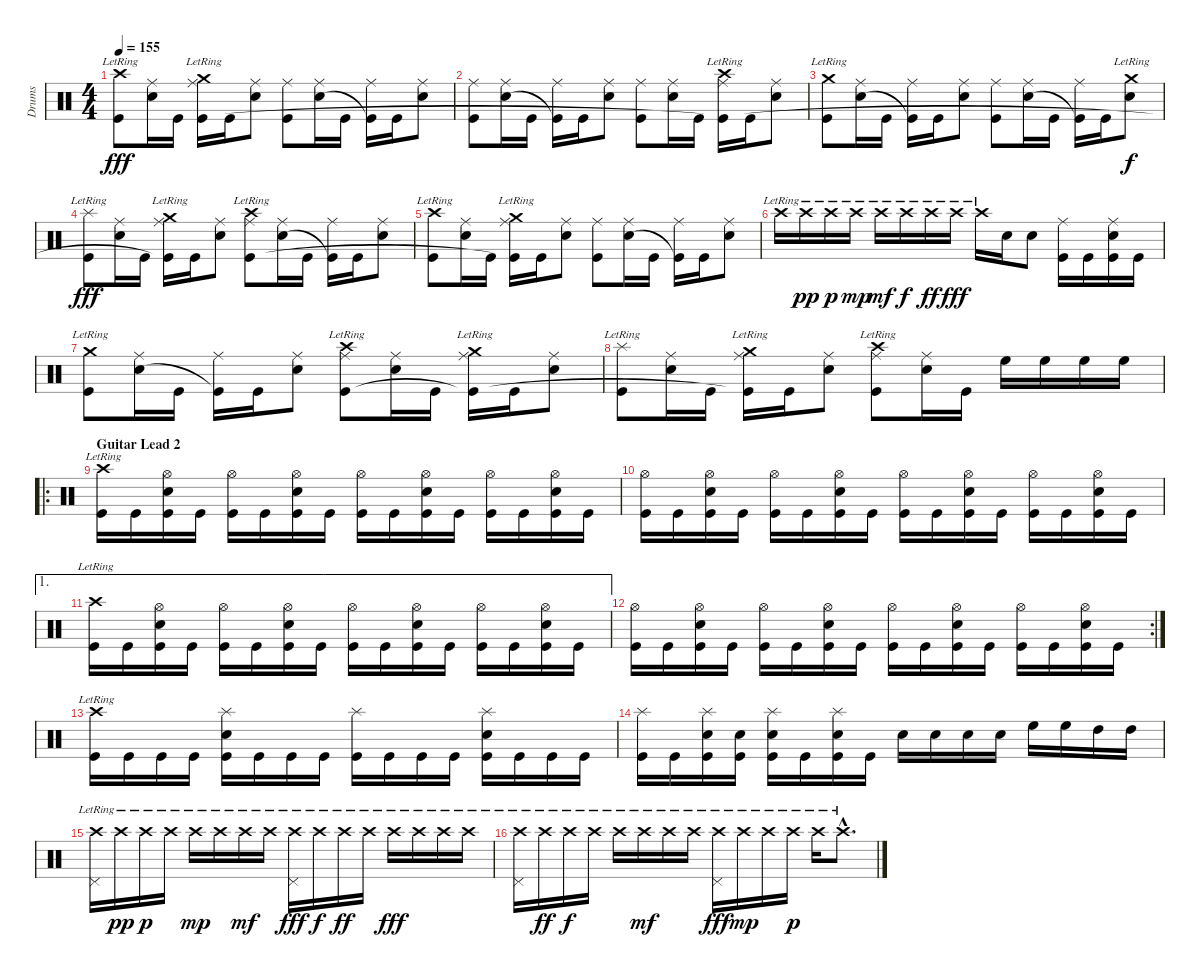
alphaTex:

\track ("Drums" "Drums") {instrument percussion}
\staff {score}
\articulation defaults
\ts (4 4)
\tempo 155
\clef neutral
\ks c
("Crash high (hit)"{lr} "Kick (hit)").8{dy fff} ("Ride (middle)" "Snare (hit) 2").16 "Kick (hit)".16 ("Crash medium (hit)"{lr} "Ride (middle)" "Kick (hit)"{t}).16 "Kick (hit)".16 ("Ride (middle)" "Snare (hit) 2").8 ("Ride (middle)" "Kick (hit)").8 ("Ride (middle)" "Snare (hit) 2").16 "Kick (hit)".16 ("Ride (middle)" "Kick (hit)"{t}).16 "Kick (hit)".16 ("Ride (middle)" "Snare (hit) 2").8 |
("Ride (middle)" "Kick (hit)").8 ("Ride (middle)" "Snare (hit) 2").16 "Kick (hit)".16 ("Ride (middle)" "Kick (hit)"{t}).16 "Kick (hit)".16 ("Ride (middle)" "Snare (hit) 2").8 ("Ride (middle)" "Kick (hit)").8 ("Ride (middle)" "Snare (hit) 2").16 "Kick (hit)".16 ("Crash high (hit)"{lr} "Ride (middle)" "Kick (hit)"{t}).16 "Kick (hit)".16 ("Ride (middle)" "Snare (hit) 2").8 |
("Crash medium (hit)"{lr} "Kick (hit)").8 ("Ride (middle)" "Snare (hit) 2").16 "Kick (hit)".16 ("Ride (middle)" "Kick (hit)"{t}).16 "Kick (hit)".16 ("Ride (middle)" "Snare (hit) 2").8 ("Ride (middle)" "Kick (hit)").8 ("Ride (middle)" "Snare (hit) 2").16 "Kick (hit)".16 ("Ride (middle)" "Kick (hit)"{t}).16 "Kick (hit)".16 ("Crash medium (hit)"{lr} "Snare (hit) 2").8{dy f} |
("Splash (hit)"{lr} "Kick (hit)").8{dy fff} ("Ride (middle)" "Snare (hit) 2").16 "Kick (hit)".16 ("Crash medium (hit)"{lr} "Ride (middle)" "Kick (hit)"{t}).16 "Kick (hit)".16 ("Ride (middle)" "Snare (hit) 2").8 ("Crash high (hit)"{lr} "Ride (middle)" "Kick (hit)").8 ("Ride (middle)" "Snare (hit) 2").16 "Kick (hit)".16 ("Ride (middle)" "Kick (hit)"{t}).16 "Kick (hit)".16 ("Ride (middle)" "Snare (hit) 2").8 |
("Crash high (hit)"{lr} "Kick (hit)").8 ("Ride (middle)" "Snare (hit) 2").16 "Kick (hit)".16 ("Crash medium (hit)"{lr} "Ride (middle)" "Kick (hit)"{t}).16 "Kick (hit)".16 ("Ride (middle)" "Snare (hit) 2").8 ("Ride (middle)" "Kick (hit)").8 ("Ride (middle)" "Snare (hit) 2").16 "Kick (hit)".16 ("Ride (middle)" "Kick (hit)"{t}).16 "Kick (hit)".16 ("Ride (middle)" "Snare (hit) 2").8 |
"Crash high (hit)"{lr}.16 "Crash high (hit)"{lr}.16{dy pp} "Crash high (hit)"{lr}.16{dy p} "Crash high (hit)"{lr}.16{dy mp} "Crash high (hit)"{lr}.16{dy mf} "Crash high (hit)"{lr}.16{dy f} "Crash high (hit)"{lr}.16{dy ff} "Crash high (hit)"{lr}.16{dy fff} "Crash high (hit)"{lr}.16 "Snare (hit) 2".16 "Snare (hit) 2".8 ("Ride (middle)" "Kick (hit)").16 "Kick (hit)".16 ("Ride (middle)" "Snare (hit) 2" "Kick (hit)").16 "Kick (hit)".16 |
("Crash medium (hit)"{lr} "Kick (hit)").8 ("Ride (middle)" "Snare (hit) 2").16 "Kick (hit)".16 ("Ride (middle)" "Kick (hit)"{t}).16 "Kick (hit)".16 ("Ride (middle)" "Snare (hit) 2").8 ("Crash high (hit)"{lr} "Ride (middle)" "Kick (hit)").8 ("Ride (middle)" "Snare (hit) 2").16 "Kick (hit)".16 ("Crash medium (hit)"{lr} "Ride (middle)" "Kick (hit)"{t}).16 "Kick (hit)".16 ("Ride (middle)" "Snare (hit) 2").8 |
("Splash (hit)"{lr} "Kick (hit)").8 ("Ride (middle)" "Snare (hit) 2").16 "Kick (hit)".16 ("Crash medium (hit)"{lr} "Ride (middle)" "Kick (hit)"{t}).16 "Kick (hit)".16 ("Ride (middle)" "Snare (hit) 2").8 ("Crash high (hit)"{lr} "Ride (middle)" "Kick (hit)").8 ("Ride (middle)" "Snare (hit) 2").16 "Kick (hit)".16 "High Floor Tom (hit)".16{balance 13} "High Floor Tom (hit)".16 "High Floor Tom (hit)".16 "High Floor Tom (hit)".16 |
\ro
\section ("" "Guitar Lead 2")
("Crash high (hit)"{lr} "Kick (hit)").16{balance 8} "Kick (hit)".16 ("Hi-Hat (open)" "Snare (hit) 2" "Kick (hit)").16 "Kick (hit)".16 ("Hi-Hat (open)" "Kick (hit)").16 "Kick (hit)".16 ("Hi-Hat (open)" "Snare (hit) 2" "Kick (hit)").16 "Kick (hit)".16 ("Hi-Hat (open)" "Kick (hit)").16 "Kick (hit)".16 ("Hi-Hat (open)" "Snare (hit) 2" "Kick (hit)").16 "Kick (hit)".16 ("Hi-Hat (open)" "Kick (hit)").16 "Kick (hit)".16 ("Hi-Hat (open)" "Snare (hit) 2" "Kick (hit)").16 "Kick (hit)".16 |
("Hi-Hat (open)" "Kick (hit)").16 "Kick (hit)".16 ("Hi-Hat (open)" "Snare (hit) 2" "Kick (hit)").16 "Kick (hit)".16 ("Hi-Hat (open)" "Kick (hit)").16 "Kick (hit)".16 ("Hi-Hat (open)" "Snare (hit) 2" "Kick (hit)").16 "Kick (hit)".16 ("Hi-Hat (open)" "Kick (hit)").16 "Kick (hit)".16 ("Hi-Hat (open)" "Snare (hit) 2" "Kick (hit)").16 "Kick (hit)".16 ("Hi-Hat (open)" "Kick (hit)").16 "Kick (hit)".16 ("Hi-Hat (open)" "Snare (hit) 2" "Kick (hit)").16 "Kick (hit)".16 |
\ae 1
("Crash high (hit)"{lr} "Kick (hit)").16 "Kick (hit)".16 ("Hi-Hat (open)" "Snare (hit) 2" "Kick (hit)").16 "Kick (hit)".16 ("Hi-Hat (open)" "Kick (hit)").16 "Kick (hit)".16 ("Hi-Hat (open)" "Snare (hit) 2" "Kick (hit)").16 "Kick (hit)".16 ("Hi-Hat (open)" "Kick (hit)").16 "Kick (hit)".16 ("Hi-Hat (open)" "Snare (hit) 2" "Kick (hit)").16 "Kick (hit)".16 ("Hi-Hat (open)" "Kick (hit)").16 "Kick (hit)".16 ("Hi-Hat (open)" "Snare (hit) 2" "Kick (hit)").16 "Kick (hit)".16 |
\rc 2
("Hi-Hat (open)" "Kick (hit)").16 "Kick (hit)".16 ("Hi-Hat (open)" "Snare (hit) 2" "Kick (hit)").16 "Kick (hit)".16 ("Hi-Hat (open)" "Kick (hit)").16 "Kick (hit)".16 ("Hi-Hat (open)" "Snare (hit) 2" "Kick (hit)").16 "Kick (hit)".16 ("Hi-Hat (open)" "Kick (hit)").16 "Kick (hit)".16 ("Hi-Hat (open)" "Snare (hit) 2" "Kick (hit)").16 "Kick (hit)".16 ("Hi-Hat (open)" "Kick (hit)").16 "Kick (hit)".16 ("Hi-Hat (open)" "Snare (hit) 2" "Kick (hit)").16 "Kick (hit)".16 |
("Crash high (hit)"{lr} "Kick (hit)").16 "Kick (hit)".16 "Kick (hit)".16 "Kick (hit)".16 ("Splash (hit)" "Snare (hit) 2" "Kick (hit)").16 "Kick (hit)".16 "Kick (hit)".16 "Kick (hit)".16 ("Splash (hit)" "Kick (hit)").16 "Kick (hit)".16 "Kick (hit)".16 "Kick (hit)".16 ("Splash (hit)" "Snare (hit) 2" "Kick (hit)").16 "Kick (hit)".16 "Kick (hit)".16 "Kick (hit)".16 |
("Splash (hit)" "Kick (hit)").16 "Kick (hit)".16 ("Splash (hit)" "Snare (hit) 2" "Kick (hit)").16 ("Snare (hit) 2" "Kick (hit)").16 ("Splash (hit)" "Snare (hit) 2" "Kick (hit)").16 "Kick (hit)".16 ("Splash (hit)" "Snare (hit) 2" "Kick (hit)").16 "Kick (hit)".16 "Snare (hit) 2".16 "Snare (hit) 2".16 "Snare (hit) 2".16 "Snare (hit) 2".16 "High Floor Tom (hit)".16{balance 13} "High Floor Tom (hit)".16 "High Tom (hit)".16{balance 3} "High Tom (hit)".16 |
("Crash high (hit)"{lr} "Pedal Hi-Hat (hit)").16 "Crash high (hit)"{lr}.16{dy pp} "Crash high (hit)"{lr}.16{dy p} "Crash high (hit)"{lr}.16 "Crash high (hit)"{lr}.16{dy mp} "Crash high (hit)"{lr}.16 "Crash high (hit)"{lr}.16{dy mf} "Crash high (hit)"{lr}.16 ("Crash high (hit)"{lr} "Pedal Hi-Hat (hit)").16{dy fff} "Crash high (hit)"{lr}.16{dy f} "Crash high (hit)"{lr}.16{dy ff} "Crash high (hit)"{lr}.16 "Crash high (hit)"{lr}.16{dy fff} "Crash high (hit)"{lr}.16 "Crash high (hit)"{lr}.16 "Crash high (hit)"{lr}.16 |
("Crash high (hit)"{lr} "Pedal Hi-Hat (hit)").16 "Crash high (hit)"{lr}.16{dy ff} "Crash high (hit)"{lr}.16{dy f} "Crash high (hit)"{lr}.16 "Crash high (hit)"{lr}.16 "Crash high (hit)"{lr}.16{dy mf} "Crash high (hit)"{lr}.16 "Crash high (hit)"{lr}.16 ("Crash high (hit)"{lr} "Pedal Hi-Hat (hit)").16{dy fff} "Crash high (hit)"{lr}.16{dy mp} "Crash high (hit)"{lr}.16 "Crash high (hit)"{lr}.16{dy p} "Crash high (hit)"{lr}.16 "Crash high (hit)"{hac lr}.8{d}
